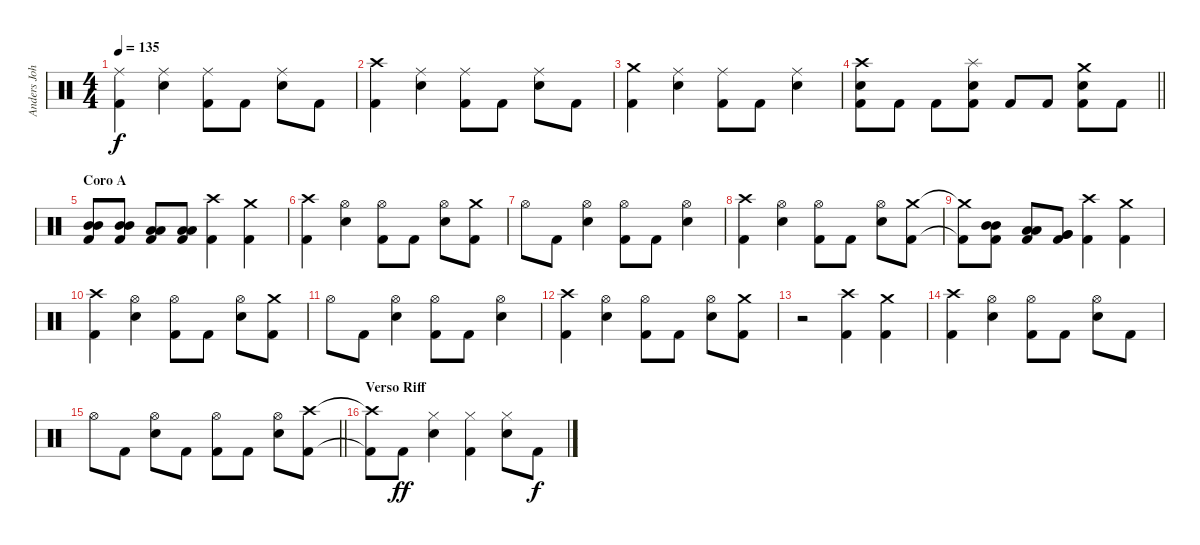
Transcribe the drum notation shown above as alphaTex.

\track ("Anders Johansson" "Anders Joh") {instrument percussion}
\staff {score}
\articulation defaults
\ts (4 4)
\tempo 135
\clef neutral
\ks c
("Ride (middle)" "Kick (hit) 2").4{dy f} ("Ride (middle)" "Snare (hit) 2").4 ("Ride (middle)" "Kick (hit) 2").8 "Kick (hit) 2".8 ("Ride (middle)" "Snare (hit) 2").8 "Kick (hit) 2".8 |
("Crash high (hit)" "Kick (hit) 2").4 ("Ride (middle)" "Snare (hit) 2").4 ("Ride (middle)" "Kick (hit) 2").8 "Kick (hit) 2".8 ("Ride (middle)" "Snare (hit) 2").8 "Kick (hit) 2".8 |
("Crash medium (hit)" "Kick (hit) 2").4 ("Ride (middle)" "Snare (hit) 2").4 ("Ride (middle)" "Kick (hit) 2").8 "Kick (hit) 2".8 ("Ride (middle)" "Snare (hit) 2").4 |
\barLineRight lightlight
("Snare (hit) 2" "Crash high (hit)" "Kick (hit) 2").8 "Kick (hit) 2".8 "Kick (hit) 2".8 ("Snare (hit) 2" "Splash (hit)" "Kick (hit) 2").8 "Kick (hit) 2".8 "Kick (hit) 2".8 ("Snare (hit) 2" "Crash medium (hit)" "Kick (hit) 2").8 "Kick (hit) 2".8 |
\section ("" "Coro A")
("Mid Tom (hit)" "Mid Tom (hit)" "Kick (hit) 2").8 ("Mid Tom (hit)" "Mid Tom (hit)" "Kick (hit) 2").8 ("Low Tom (hit)" "Low Tom (hit)" "Kick (hit) 2").8 ("Low Tom (hit)" "Low Tom (hit)" "Kick (hit) 2").8 ("Crash high (hit)" "Kick (hit) 2").4 ("Crash medium (hit)" "Kick (hit) 2").4 |
("Crash high (hit)" "Kick (hit) 2").4 ("Hi-Hat (open)" "Snare (hit) 2").4 ("Hi-Hat (open)" "Kick (hit) 2").8 "Kick (hit) 2".8 ("Hi-Hat (open)" "Snare (hit) 2").8 ("Crash medium (hit)" "Kick (hit) 2").8 |
"Hi-Hat (open)".8 "Kick (hit) 2".8 ("Hi-Hat (open)" "Snare (hit) 2").4 ("Hi-Hat (open)" "Kick (hit) 2").8 "Kick (hit) 2".8 ("Hi-Hat (open)" "Snare (hit) 2").4 |
("Crash high (hit)" "Kick (hit) 2").4 ("Hi-Hat (open)" "Snare (hit) 2").4 ("Hi-Hat (open)" "Kick (hit) 2").8 "Kick (hit) 2".8 ("Hi-Hat (open)" "Snare (hit) 2").8 ("Crash medium (hit)" "Kick (hit) 2").8 |
("Crash medium (hit)"{t} "Kick (hit) 2"{t}).8 ("Mid Tom (hit)" "Mid Tom (hit)" "Kick (hit) 2").8 ("Low Tom (hit)" "Low Tom (hit)" "Kick (hit) 2").8 ("Very Low Tom (hit)" "Very Low Tom (hit)" "Kick (hit) 2").8 ("Crash high (hit)" "Kick (hit) 2").4 ("Crash medium (hit)" "Kick (hit) 2").4 |
("Crash high (hit)" "Kick (hit) 2").4 ("Hi-Hat (open)" "Snare (hit) 2").4 ("Hi-Hat (open)" "Kick (hit) 2").8 "Kick (hit) 2".8 ("Hi-Hat (open)" "Snare (hit) 2").8 ("Crash medium (hit)" "Kick (hit) 2").8 |
"Hi-Hat (open)".8 "Kick (hit) 2".8 ("Hi-Hat (open)" "Snare (hit) 2").4 ("Hi-Hat (open)" "Kick (hit) 2").8 "Kick (hit) 2".8 ("Hi-Hat (open)" "Snare (hit) 2").4 |
("Crash high (hit)" "Kick (hit) 2").4 ("Hi-Hat (open)" "Snare (hit) 2").4 ("Hi-Hat (open)" "Kick (hit) 2").8 "Kick (hit) 2".8 ("Hi-Hat (open)" "Snare (hit) 2").8 ("Crash medium (hit)" "Kick (hit) 2").8 |
r.2 ("Crash high (hit)" "Kick (hit) 2").4 ("Crash medium (hit)" "Kick (hit) 2").4 |
("Crash high (hit)" "Kick (hit) 2").4 ("Hi-Hat (open)" "Snare (hit) 2").4 ("Hi-Hat (open)" "Kick (hit) 2").8 "Kick (hit) 2".8 ("Hi-Hat (open)" "Snare (hit) 2").8 "Kick (hit) 2".8 |
\barLineRight lightlight "Hi-Hat (open)".8 "Kick (hit) 2".8
("Hi-Hat (open)" "Snare (hit) 2").8 "Kick (hit) 2".8 ("Hi-Hat (open)" "Kick (hit) 2").8 "Kick (hit) 2".8 ("Hi-Hat (open)" "Snare (hit) 2").8 ("Crash high (hit)" "Kick (hit) 2").8 |
\section ("" "Verso Riff")
("Crash high (hit)"{t} "Kick (hit) 2"{t}).8 "Kick (hit) 2".8{dy ff} ("Hi-Hat (closed)" "Snare (hit) 2").4 ("Hi-Hat (closed)" "Kick (hit) 2").4 ("Hi-Hat (closed)" "Snare (hit) 2").8 "Kick (hit) 2".8{dy f}
